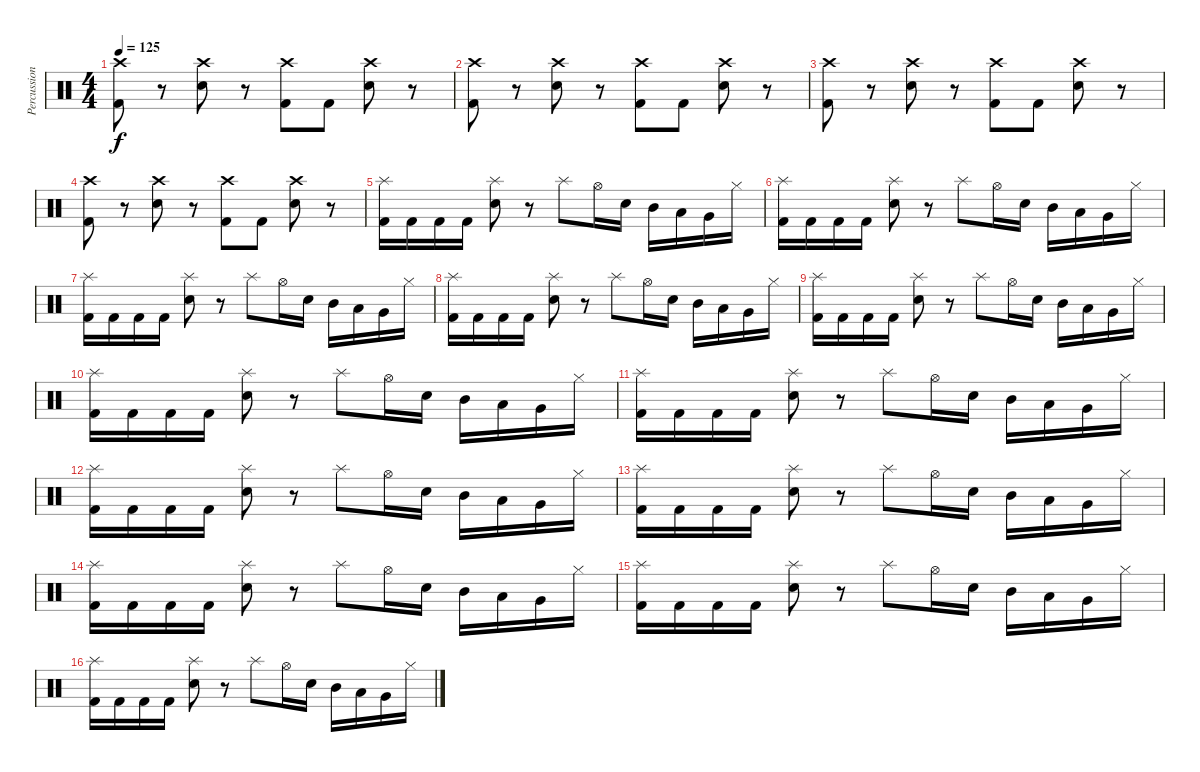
\track ("Percussion" "Percussion") {instrument percussion}
\staff {score}
\articulation defaults
\ts (4 4)
\tempo 125
\clef neutral
\ks c
("Crash high (hit)" "Kick (hit) 2").8{dy f} r.8 ("Crash high (hit)" "Electric Snare (hit)").8 r.8 ("Crash high (hit)" "Kick (hit) 2").8 "Kick (hit) 2".8 ("Crash high (hit)" "Electric Snare (hit)").8 r.8 |
("Crash high (hit)" "Kick (hit) 2").8 r.8 ("Crash high (hit)" "Electric Snare (hit)").8 r.8 ("Crash high (hit)" "Kick (hit) 2").8 "Kick (hit) 2".8 ("Crash high (hit)" "Electric Snare (hit)").8 r.8 |
("Crash high (hit)" "Kick (hit) 2").8 r.8 ("Crash high (hit)" "Electric Snare (hit)").8 r.8 ("Crash high (hit)" "Kick (hit) 2").8 "Kick (hit) 2".8 ("Crash high (hit)" "Electric Snare (hit)").8 r.8 |
("Crash high (hit)" "Kick (hit) 2").8 r.8 ("Crash high (hit)" "Electric Snare (hit)").8 r.8 ("Crash high (hit)" "Kick (hit) 2").8 "Kick (hit) 2".8 ("Crash high (hit)" "Electric Snare (hit)").8 r.8 |
("Splash (hit)" "Kick (hit) 2").16 "Kick (hit) 2".16 "Kick (hit) 2".16 "Kick (hit) 2".16 ("Splash (hit)" "Electric Snare (hit)").8 r.8 "Splash (hit)".8 "Hi-Hat (open)".16 "Electric Snare (hit)".16 "Mid Tom (hit)".16 "Low Tom (hit)".16 "Very Low Tom (hit)".16 "Hi-Hat (closed)".16 |
("Splash (hit)" "Kick (hit) 2").16 "Kick (hit) 2".16 "Kick (hit) 2".16 "Kick (hit) 2".16 ("Splash (hit)" "Electric Snare (hit)").8 r.8 "Splash (hit)".8 "Hi-Hat (open)".16 "Electric Snare (hit)".16 "Mid Tom (hit)".16 "Low Tom (hit)".16 "Very Low Tom (hit)".16 "Hi-Hat (closed)".16 |
("Splash (hit)" "Kick (hit) 2").16 "Kick (hit) 2".16 "Kick (hit) 2".16 "Kick (hit) 2".16 ("Splash (hit)" "Electric Snare (hit)").8 r.8 "Splash (hit)".8 "Hi-Hat (open)".16 "Electric Snare (hit)".16 "Mid Tom (hit)".16 "Low Tom (hit)".16 "Very Low Tom (hit)".16 "Hi-Hat (closed)".16 |
("Splash (hit)" "Kick (hit) 2").16 "Kick (hit) 2".16 "Kick (hit) 2".16 "Kick (hit) 2".16 ("Splash (hit)" "Electric Snare (hit)").8 r.8 "Splash (hit)".8 "Hi-Hat (open)".16 "Electric Snare (hit)".16 "Mid Tom (hit)".16 "Low Tom (hit)".16 "Very Low Tom (hit)".16 "Hi-Hat (closed)".16 |
("Splash (hit)" "Kick (hit) 2").16 "Kick (hit) 2".16 "Kick (hit) 2".16 "Kick (hit) 2".16 ("Splash (hit)" "Electric Snare (hit)").8 r.8 "Splash (hit)".8 "Hi-Hat (open)".16 "Electric Snare (hit)".16 "Mid Tom (hit)".16 "Low Tom (hit)".16 "Very Low Tom (hit)".16 "Hi-Hat (closed)".16 |
("Splash (hit)" "Kick (hit) 2").16 "Kick (hit) 2".16 "Kick (hit) 2".16 "Kick (hit) 2".16 ("Splash (hit)" "Electric Snare (hit)").8 r.8 "Splash (hit)".8 "Hi-Hat (open)".16 "Electric Snare (hit)".16 "Mid Tom (hit)".16 "Low Tom (hit)".16 "Very Low Tom (hit)".16 "Hi-Hat (closed)".16 |
("Splash (hit)" "Kick (hit) 2").16 "Kick (hit) 2".16 "Kick (hit) 2".16 "Kick (hit) 2".16 ("Splash (hit)" "Electric Snare (hit)").8 r.8 "Splash (hit)".8 "Hi-Hat (open)".16 "Electric Snare (hit)".16 "Mid Tom (hit)".16 "Low Tom (hit)".16 "Very Low Tom (hit)".16 "Hi-Hat (closed)".16 |
("Splash (hit)" "Kick (hit) 2").16 "Kick (hit) 2".16 "Kick (hit) 2".16 "Kick (hit) 2".16 ("Splash (hit)" "Electric Snare (hit)").8 r.8 "Splash (hit)".8 "Hi-Hat (open)".16 "Electric Snare (hit)".16 "Mid Tom (hit)".16 "Low Tom (hit)".16 "Very Low Tom (hit)".16 "Hi-Hat (closed)".16 |
("Splash (hit)" "Kick (hit) 2").16 "Kick (hit) 2".16 "Kick (hit) 2".16 "Kick (hit) 2".16 ("Splash (hit)" "Electric Snare (hit)").8 r.8 "Splash (hit)".8 "Hi-Hat (open)".16 "Electric Snare (hit)".16 "Mid Tom (hit)".16 "Low Tom (hit)".16 "Very Low Tom (hit)".16 "Hi-Hat (closed)".16 |
("Splash (hit)" "Kick (hit) 2").16 "Kick (hit) 2".16 "Kick (hit) 2".16 "Kick (hit) 2".16 ("Splash (hit)" "Electric Snare (hit)").8 r.8 "Splash (hit)".8 "Hi-Hat (open)".16 "Electric Snare (hit)".16 "Mid Tom (hit)".16 "Low Tom (hit)".16 "Very Low Tom (hit)".16 "Hi-Hat (closed)".16 |
("Splash (hit)" "Kick (hit) 2").16 "Kick (hit) 2".16 "Kick (hit) 2".16 "Kick (hit) 2".16 ("Splash (hit)" "Electric Snare (hit)").8 r.8 "Splash (hit)".8 "Hi-Hat (open)".16 "Electric Snare (hit)".16 "Mid Tom (hit)".16 "Low Tom (hit)".16 "Very Low Tom (hit)".16 "Hi-Hat (closed)".16 |
("Splash (hit)" "Kick (hit) 2").16 "Kick (hit) 2".16 "Kick (hit) 2".16 "Kick (hit) 2".16 ("Splash (hit)" "Electric Snare (hit)").8 r.8 "Splash (hit)".8 "Hi-Hat (open)".16 "Electric Snare (hit)".16 "Mid Tom (hit)".16 "Low Tom (hit)".16 "Very Low Tom (hit)".16 "Hi-Hat (closed)".16
